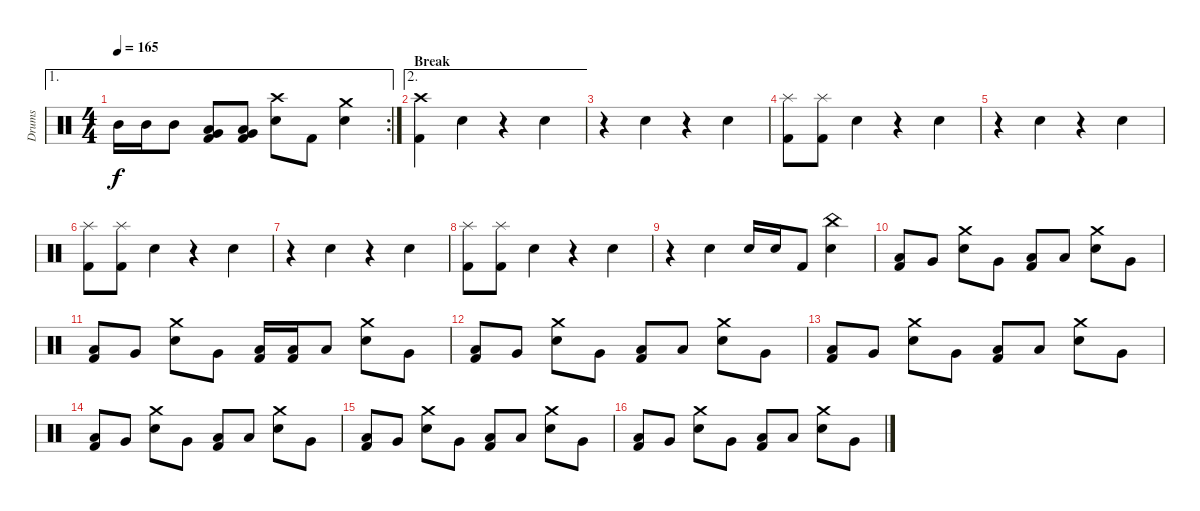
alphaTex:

\track ("Drums" "Drums") {instrument percussion}
\staff {score}
\articulation defaults
\ae 1
\rc 2
\ts (4 4)
\tempo 165
\clef neutral
\ks c "Mid Tom (hit)".16{dy f} "Mid Tom (hit)".16 "Mid Tom (hit)".8
("Very Low Tom (hit)" "Low Tom (hit)" "Kick (hit) 2").8 ("Very Low Tom (hit)" "Low Tom (hit)" "Kick (hit) 2").8 ("Crash high (hit)" "Electric Snare (hit)").8 "Kick (hit) 2".8 ("Crash medium (hit)" "Electric Snare (hit)").4 |
\ae 2
\section ("" "Break")
("Crash high (hit)" "Kick (hit) 2").4 "Electric Snare (hit)".4 r.4 "Electric Snare (hit)".4 |
r.4 "Electric Snare (hit)".4 r.4 "Electric Snare (hit)".4 |
("Splash (hit)" "Kick (hit) 2").8 ("Splash (hit)" "Kick (hit) 2").8 "Electric Snare (hit)".4 r.4 "Electric Snare (hit)".4 |
r.4 "Electric Snare (hit)".4 r.4 "Electric Snare (hit)".4 |
("Splash (hit)" "Kick (hit) 2").8 ("Splash (hit)" "Kick (hit) 2").8 "Electric Snare (hit)".4 r.4 "Electric Snare (hit)".4 |
r.4 "Electric Snare (hit)".4 r.4 "Electric Snare (hit)".4 |
("Splash (hit)" "Kick (hit) 2").8 ("Splash (hit)" "Kick (hit) 2").8 "Electric Snare (hit)".4 r.4 "Electric Snare (hit)".4 |
r.4 "Electric Snare (hit)".4 "Electric Snare (hit)".16 "Electric Snare (hit)".16 "Kick (hit) 2".8 ("China (hit)" "Electric Snare (hit)").4 |
("Low Tom (hit)" "Kick (hit) 2").8 "Very Low Tom (hit)".8 ("Crash medium (hit)" "Electric Snare (hit)").8 "Very Low Tom (hit)".8 ("Low Tom (hit)" "Kick (hit) 2").8 "Low Tom (hit)".8 ("Crash medium (hit)" "Electric Snare (hit)").8 "Very Low Tom (hit)".8 |
("Low Tom (hit)" "Kick (hit) 2").8 "Very Low Tom (hit)".8 ("Crash medium (hit)" "Electric Snare (hit)").8 "Very Low Tom (hit)".8 ("Low Tom (hit)" "Kick (hit) 2").16 ("Low Tom (hit)" "Kick (hit) 2").16 "Low Tom (hit)".8 ("Crash medium (hit)" "Electric Snare (hit)").8 "Very Low Tom (hit)".8 |
("Low Tom (hit)" "Kick (hit) 2").8 "Very Low Tom (hit)".8 ("Crash medium (hit)" "Electric Snare (hit)").8 "Very Low Tom (hit)".8 ("Low Tom (hit)" "Kick (hit) 2").8 "Low Tom (hit)".8 ("Crash medium (hit)" "Electric Snare (hit)").8 "Very Low Tom (hit)".8 |
("Low Tom (hit)" "Kick (hit) 2").8 "Very Low Tom (hit)".8 ("Crash medium (hit)" "Electric Snare (hit)").8 "Very Low Tom (hit)".8 ("Low Tom (hit)" "Kick (hit) 2").8 "Low Tom (hit)".8 ("Crash medium (hit)" "Electric Snare (hit)").8 "Very Low Tom (hit)".8 |
("Low Tom (hit)" "Kick (hit) 2").8 "Very Low Tom (hit)".8 ("Crash medium (hit)" "Electric Snare (hit)").8 "Very Low Tom (hit)".8 ("Low Tom (hit)" "Kick (hit) 2").8 "Low Tom (hit)".8 ("Crash medium (hit)" "Electric Snare (hit)").8 "Very Low Tom (hit)".8 |
("Low Tom (hit)" "Kick (hit) 2").8 "Very Low Tom (hit)".8 ("Crash medium (hit)" "Electric Snare (hit)").8 "Very Low Tom (hit)".8 ("Low Tom (hit)" "Kick (hit) 2").8 "Low Tom (hit)".8 ("Crash medium (hit)" "Electric Snare (hit)").8 "Very Low Tom (hit)".8 |
("Low Tom (hit)" "Kick (hit) 2").8 "Very Low Tom (hit)".8 ("Crash medium (hit)" "Electric Snare (hit)").8 "Very Low Tom (hit)".8 ("Low Tom (hit)" "Kick (hit) 2").8 "Low Tom (hit)".8 ("Crash medium (hit)" "Electric Snare (hit)").8 "Very Low Tom (hit)".8
